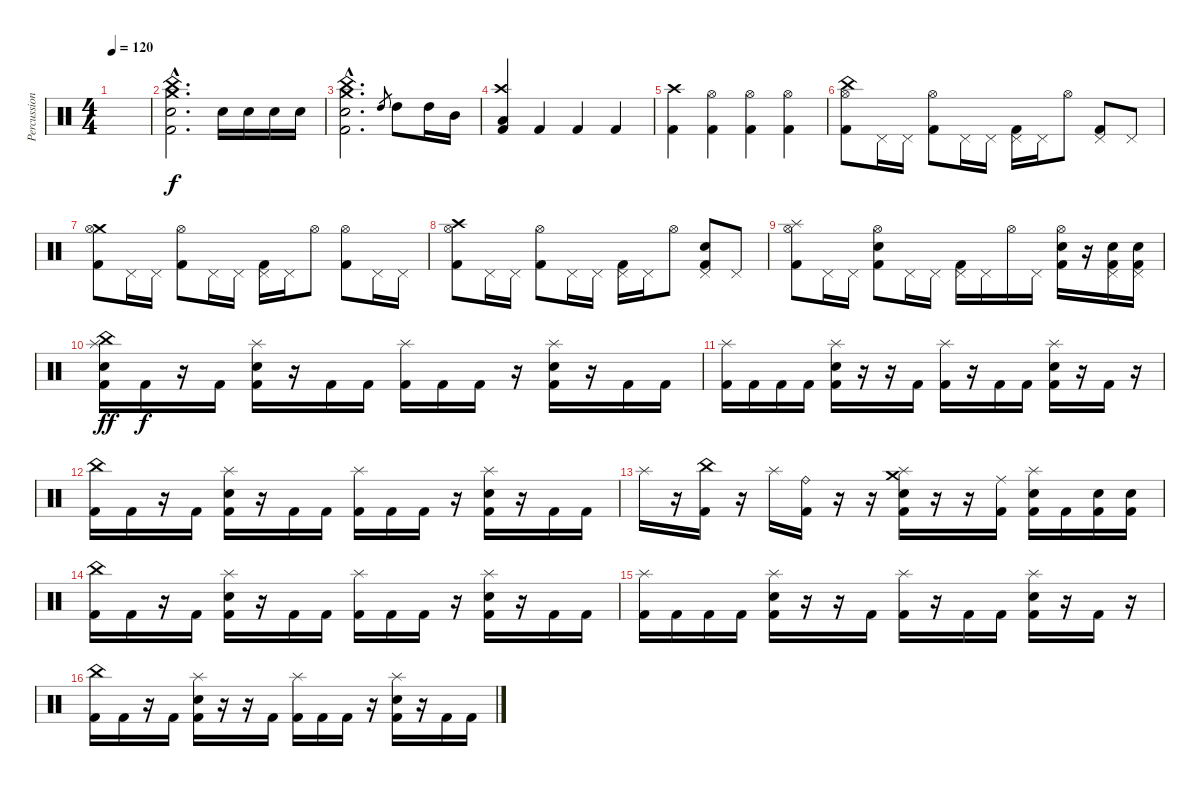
\track ("Percussion" "Percussion") {instrument percussion}
\staff {score}
\articulation defaults
\ts (4 4)
\tempo 120
\clef neutral
\ks c
|
("Crash medium (hit)"{hac} "China (hit)"{hac} "Electric Snare (hit)"{hac} "Kick (hit) 2"{hac}).2{d} "Electric Snare (hit)".16 "Electric Snare (hit)".16 "Electric Snare (hit)".16 "Electric Snare (hit)".16 |
("Crash medium (hit)"{hac} "China (hit)"{hac} "Electric Snare (hit)"{hac} "Kick (hit) 2"{hac}).2{d} "High Tom (hit)".8{gr} "High Tom (hit)".8 "High Tom (hit)".16 "Mid Tom (hit)".16 |
("Crash high (hit)" "Low Tom (hit)" "Kick (hit) 2").4 "Kick (hit) 2".4 "Kick (hit) 2".4 "Kick (hit) 2".4 |
("Crash high (hit)" "Kick (hit) 2").4 ("Hi-Hat (open)" "Kick (hit) 2").4 ("Hi-Hat (open)" "Kick (hit) 2").4 ("Hi-Hat (open)" "Kick (hit) 2").4 |
("China (hit)" "Hi-Hat (open)" "Kick (hit) 2").8 "Pedal Hi-Hat (hit)".16 "Pedal Hi-Hat (hit)".16 ("Hi-Hat (open)" "Kick (hit) 2").8 "Pedal Hi-Hat (hit)".16 "Pedal Hi-Hat (hit)".16 ("Pedal Hi-Hat (hit)" "Kick (hit) 2").16 "Pedal Hi-Hat (hit)".16 "Hi-Hat (open)".8 ("Pedal Hi-Hat (hit)" "Kick (hit) 2").8 "Pedal Hi-Hat (hit)".8 |
("Crash medium (hit)" "Hi-Hat (open)" "Kick (hit) 2").8 "Pedal Hi-Hat (hit)".16 "Pedal Hi-Hat (hit)".16 ("Hi-Hat (open)" "Kick (hit) 2").8 "Pedal Hi-Hat (hit)".16 "Pedal Hi-Hat (hit)".16 ("Pedal Hi-Hat (hit)" "Kick (hit) 2").16 "Pedal Hi-Hat (hit)".16 "Hi-Hat (open)".8 ("Hi-Hat (open)" "Kick (hit) 2").8 "Pedal Hi-Hat (hit)".16 "Pedal Hi-Hat (hit)".16 |
("Crash high (hit)" "Hi-Hat (open)" "Kick (hit) 2").8 "Pedal Hi-Hat (hit)".16 "Pedal Hi-Hat (hit)".16 ("Hi-Hat (open)" "Kick (hit) 2").8 "Pedal Hi-Hat (hit)".16 "Pedal Hi-Hat (hit)".16 ("Pedal Hi-Hat (hit)" "Kick (hit) 2").16 "Pedal Hi-Hat (hit)".16 "Hi-Hat (open)".8 ("Pedal Hi-Hat (hit)" "Electric Snare (hit)" "Kick (hit) 2").8 "Pedal Hi-Hat (hit)".8 |
("Splash (hit)" "Hi-Hat (open)" "Kick (hit) 2").8 "Pedal Hi-Hat (hit)".16 "Pedal Hi-Hat (hit)".16 ("Hi-Hat (open)" "Electric Snare (hit)" "Kick (hit) 2").8 "Pedal Hi-Hat (hit)".16 "Pedal Hi-Hat (hit)".16 ("Pedal Hi-Hat (hit)" "Kick (hit) 2").16 "Pedal Hi-Hat (hit)".16 "Hi-Hat (open)".16 "Pedal Hi-Hat (hit)".16 ("Hi-Hat (open)" "Electric Snare (hit)" "Kick (hit) 2").16 r.16 ("Pedal Hi-Hat (hit)" "Electric Snare (hit)" "Kick (hit) 2").16 ("Pedal Hi-Hat (hit)" "Electric Snare (hit)" "Kick (hit) 2").16 |
("China (hit)" "Splash (hit)" "Electric Snare (hit)" "Kick (hit) 2").16{dy ff} "Kick (hit) 2".16{dy f} r.16 "Kick (hit) 2".16 ("Splash (hit)" "Electric Snare (hit)" "Kick (hit) 2").16 r.16 "Kick (hit) 2".16 "Kick (hit) 2".16 ("Splash (hit)" "Kick (hit) 2").16 "Kick (hit) 2".16 "Kick (hit) 2".16 r.16 ("Splash (hit)" "Electric Snare (hit)" "Kick (hit) 2").16 r.16 "Kick (hit) 2".16 "Kick (hit) 2".16 |
("Splash (hit)" "Kick (hit) 2").16 "Kick (hit) 2".16 "Kick (hit) 2".16 "Kick (hit) 2".16 ("Splash (hit)" "Electric Snare (hit)" "Kick (hit) 2").16 r.16 r.16 "Kick (hit) 2".16 ("Splash (hit)" "Kick (hit) 2").16 r.16 "Kick (hit) 2".16 "Kick (hit) 2".16 ("Splash (hit)" "Electric Snare (hit)" "Kick (hit) 2").16 r.16 "Kick (hit) 2".16 r.16 |
("China (hit)" "Kick (hit) 2").16 "Kick (hit) 2".16 r.16 "Kick (hit) 2".16 ("Splash (hit)" "Electric Snare (hit)" "Kick (hit) 2").16 r.16 "Kick (hit) 2".16 "Kick (hit) 2".16 ("Splash (hit)" "Kick (hit) 2").16 "Kick (hit) 2".16 "Kick (hit) 2".16 r.16 ("Splash (hit)" "Electric Snare (hit)" "Kick (hit) 2").16 r.16 "Kick (hit) 2".16 "Kick (hit) 2".16 |
"Splash (hit)".16 r.16 ("China (hit)" "Kick (hit) 2").16 r.16 "Splash (hit)".16 ("Ride (bell)" "Kick (hit) 2").16 r.16 r.16 ("Crash medium (hit)" "Splash (hit)" "Electric Snare (hit)" "Kick (hit) 2").16 r.16 r.16 ("Ride (middle)" "Kick (hit) 2").16 ("Splash (hit)" "Electric Snare (hit)" "Kick (hit) 2").16 "Kick (hit) 2".16 ("Electric Snare (hit)" "Kick (hit) 2").16 ("Electric Snare (hit)" "Kick (hit) 2").16 |
("China (hit)" "Kick (hit) 2").16 "Kick (hit) 2".16 r.16 "Kick (hit) 2".16 ("Splash (hit)" "Electric Snare (hit)" "Kick (hit) 2").16 r.16 "Kick (hit) 2".16 "Kick (hit) 2".16 ("Splash (hit)" "Kick (hit) 2").16 "Kick (hit) 2".16 "Kick (hit) 2".16 r.16 ("Splash (hit)" "Electric Snare (hit)" "Kick (hit) 2").16 r.16 "Kick (hit) 2".16 "Kick (hit) 2".16 |
("Splash (hit)" "Kick (hit) 2").16 "Kick (hit) 2".16 "Kick (hit) 2".16 "Kick (hit) 2".16 ("Splash (hit)" "Electric Snare (hit)" "Kick (hit) 2").16 r.16 r.16 "Kick (hit) 2".16 ("Splash (hit)" "Kick (hit) 2").16 r.16 "Kick (hit) 2".16 "Kick (hit) 2".16 ("Splash (hit)" "Electric Snare (hit)" "Kick (hit) 2").16 r.16 "Kick (hit) 2".16 r.16 |
("China (hit)" "Kick (hit) 2").16 "Kick (hit) 2".16 r.16 "Kick (hit) 2".16 ("Splash (hit)" "Electric Snare (hit)" "Kick (hit) 2").16 r.16 r.16 "Kick (hit) 2".16 ("Splash (hit)" "Kick (hit) 2").16 "Kick (hit) 2".16 "Kick (hit) 2".16 r.16 ("Splash (hit)" "Electric Snare (hit)" "Kick (hit) 2").16 r.16 "Kick (hit) 2".16 "Kick (hit) 2".16
